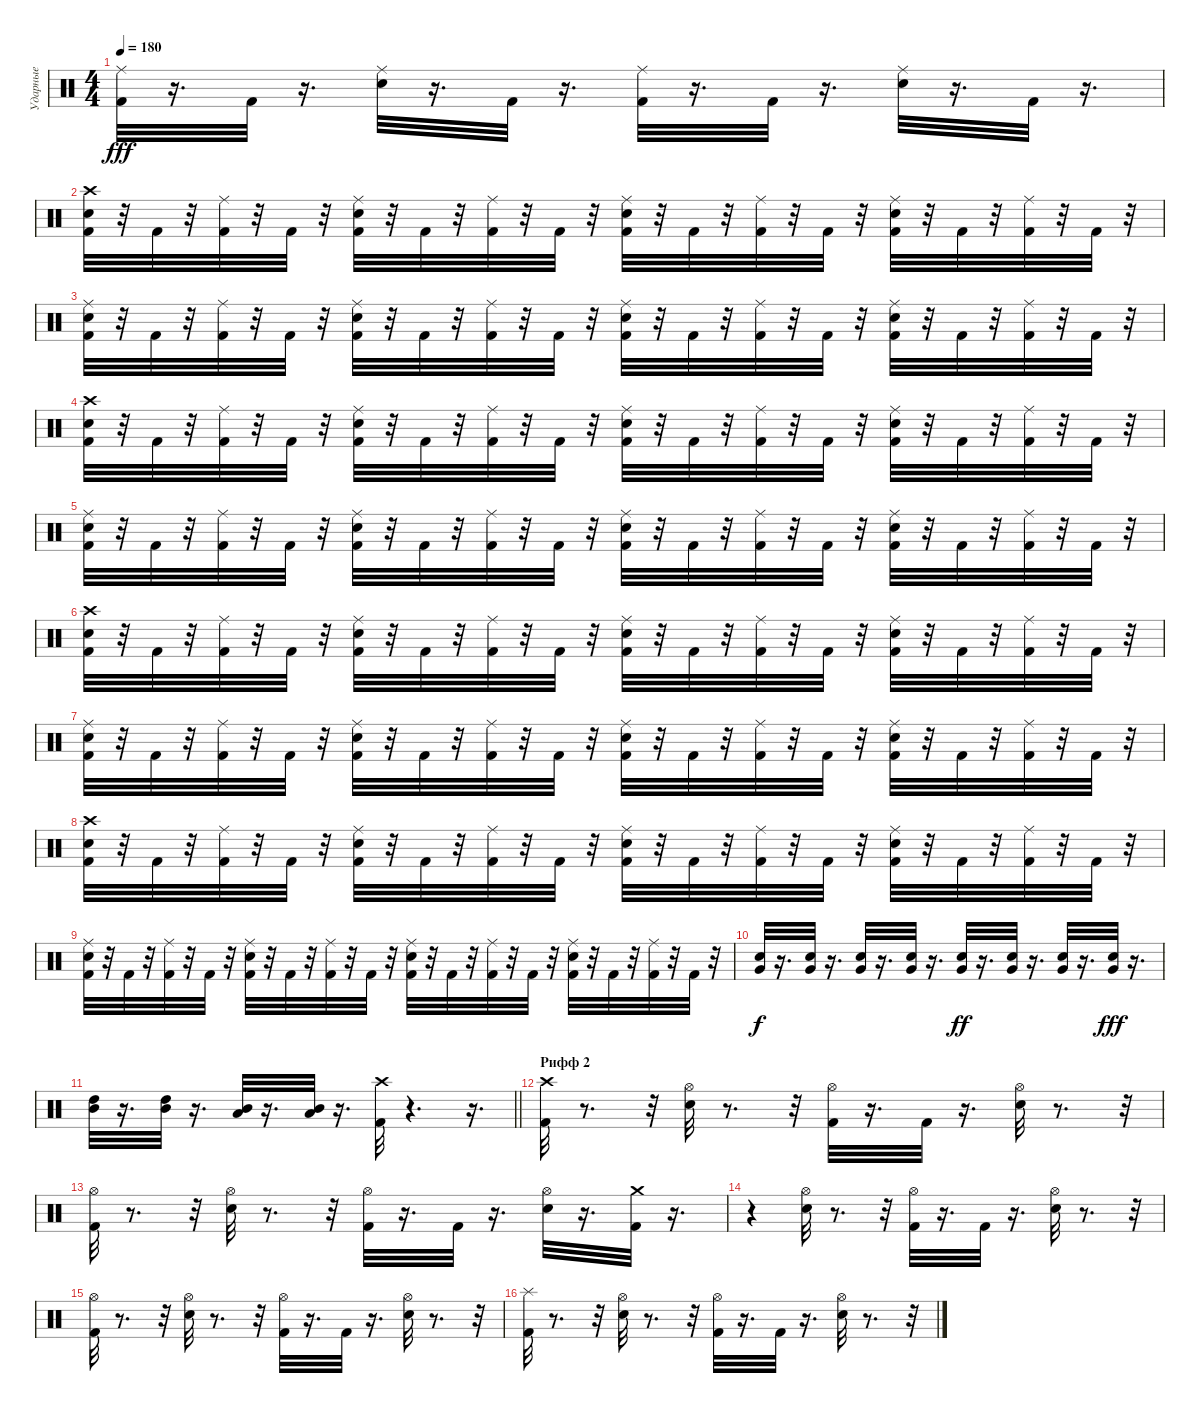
\track ("Ударные" "Ударные") {instrument percussion}
\staff {score}
\articulation defaults
\ts (4 4)
\tempo 180
\clef neutral
\ks c
("Ride (middle)" "Kick (hit) 2").32{dy fff} r.16{d} "Kick (hit) 2".32 r.16{d} ("Snare (hit) 2" "Ride (middle)").32 r.16{d} "Kick (hit) 2".32 r.16{d} ("Ride (middle)" "Kick (hit) 2").32 r.16{d} "Kick (hit) 2".32 r.16{d} ("Snare (hit) 2" "Ride (middle)").32 r.16{d} "Kick (hit) 2".32 r.16{d} |
("Kick (hit) 2" "Crash high (hit)" "Snare (hit) 2").32 r.32 "Kick (hit) 2".32 r.32 ("Ride (middle)" "Kick (hit) 2").32 r.32 "Kick (hit) 2".32 r.32 ("Snare (hit) 2" "Kick (hit) 2" "Ride (middle)").32 r.32 "Kick (hit) 2".32 r.32 ("Kick (hit) 2" "Ride (middle)").32 r.32 "Kick (hit) 2".32 r.32 ("Snare (hit) 2" "Kick (hit) 2" "Ride (middle)").32 r.32 "Kick (hit) 2".32 r.32 ("Kick (hit) 2" "Ride (middle)").32 r.32 "Kick (hit) 2".32 r.32 ("Ride (middle)" "Kick (hit) 2" "Snare (hit) 2").32 r.32 "Kick (hit) 2".32 r.32 ("Kick (hit) 2" "Ride (middle)").32 r.32 "Kick (hit) 2".32 r.32 |
("Snare (hit) 2" "Kick (hit) 2" "Ride (middle)").32 r.32 "Kick (hit) 2".32 r.32 ("Kick (hit) 2" "Ride (middle)").32 r.32 "Kick (hit) 2".32 r.32 ("Snare (hit) 2" "Kick (hit) 2" "Ride (middle)").32 r.32 "Kick (hit) 2".32 r.32 ("Kick (hit) 2" "Ride (middle)").32 r.32 "Kick (hit) 2".32 r.32 ("Snare (hit) 2" "Kick (hit) 2" "Ride (middle)").32 r.32 "Kick (hit) 2".32 r.32 ("Kick (hit) 2" "Ride (middle)").32 r.32 "Kick (hit) 2".32 r.32 ("Snare (hit) 2" "Kick (hit) 2" "Ride (middle)").32 r.32 "Kick (hit) 2".32 r.32 ("Kick (hit) 2" "Ride (middle)").32 r.32 "Kick (hit) 2".32 r.32 |
("Kick (hit) 2" "Crash high (hit)" "Snare (hit) 2").32 r.32 "Kick (hit) 2".32 r.32 ("Ride (middle)" "Kick (hit) 2").32 r.32 "Kick (hit) 2".32 r.32 ("Snare (hit) 2" "Kick (hit) 2" "Ride (middle)").32 r.32 "Kick (hit) 2".32 r.32 ("Kick (hit) 2" "Ride (middle)").32 r.32 "Kick (hit) 2".32 r.32 ("Snare (hit) 2" "Kick (hit) 2" "Ride (middle)").32 r.32 "Kick (hit) 2".32 r.32 ("Kick (hit) 2" "Ride (middle)").32 r.32 "Kick (hit) 2".32 r.32 ("Ride (middle)" "Kick (hit) 2" "Snare (hit) 2").32 r.32 "Kick (hit) 2".32 r.32 ("Kick (hit) 2" "Ride (middle)").32 r.32 "Kick (hit) 2".32 r.32 |
("Snare (hit) 2" "Kick (hit) 2" "Ride (middle)").32 r.32 "Kick (hit) 2".32 r.32 ("Kick (hit) 2" "Ride (middle)").32 r.32 "Kick (hit) 2".32 r.32 ("Snare (hit) 2" "Kick (hit) 2" "Ride (middle)").32 r.32 "Kick (hit) 2".32 r.32 ("Kick (hit) 2" "Ride (middle)").32 r.32 "Kick (hit) 2".32 r.32 ("Snare (hit) 2" "Kick (hit) 2" "Ride (middle)").32 r.32 "Kick (hit) 2".32 r.32 ("Kick (hit) 2" "Ride (middle)").32 r.32 "Kick (hit) 2".32 r.32 ("Snare (hit) 2" "Kick (hit) 2" "Ride (middle)").32 r.32 "Kick (hit) 2".32 r.32 ("Kick (hit) 2" "Ride (middle)").32 r.32 "Kick (hit) 2".32 r.32 |
("Kick (hit) 2" "Crash high (hit)" "Snare (hit) 2").32 r.32 "Kick (hit) 2".32 r.32 ("Ride (middle)" "Kick (hit) 2").32 r.32 "Kick (hit) 2".32 r.32 ("Snare (hit) 2" "Kick (hit) 2" "Ride (middle)").32 r.32 "Kick (hit) 2".32 r.32 ("Kick (hit) 2" "Ride (middle)").32 r.32 "Kick (hit) 2".32 r.32 ("Snare (hit) 2" "Kick (hit) 2" "Ride (middle)").32 r.32 "Kick (hit) 2".32 r.32 ("Kick (hit) 2" "Ride (middle)").32 r.32 "Kick (hit) 2".32 r.32 ("Ride (middle)" "Kick (hit) 2" "Snare (hit) 2").32 r.32 "Kick (hit) 2".32 r.32 ("Kick (hit) 2" "Ride (middle)").32 r.32 "Kick (hit) 2".32 r.32 |
("Snare (hit) 2" "Kick (hit) 2" "Ride (middle)").32 r.32 "Kick (hit) 2".32 r.32 ("Kick (hit) 2" "Ride (middle)").32 r.32 "Kick (hit) 2".32 r.32 ("Snare (hit) 2" "Kick (hit) 2" "Ride (middle)").32 r.32 "Kick (hit) 2".32 r.32 ("Kick (hit) 2" "Ride (middle)").32 r.32 "Kick (hit) 2".32 r.32 ("Snare (hit) 2" "Kick (hit) 2" "Ride (middle)").32 r.32 "Kick (hit) 2".32 r.32 ("Kick (hit) 2" "Ride (middle)").32 r.32 "Kick (hit) 2".32 r.32 ("Snare (hit) 2" "Kick (hit) 2" "Ride (middle)").32 r.32 "Kick (hit) 2".32 r.32 ("Kick (hit) 2" "Ride (middle)").32 r.32 "Kick (hit) 2".32 r.32 |
("Kick (hit) 2" "Crash high (hit)" "Snare (hit) 2").32 r.32 "Kick (hit) 2".32 r.32 ("Ride (middle)" "Kick (hit) 2").32 r.32 "Kick (hit) 2".32 r.32 ("Snare (hit) 2" "Kick (hit) 2" "Ride (middle)").32 r.32 "Kick (hit) 2".32 r.32 ("Kick (hit) 2" "Ride (middle)").32 r.32 "Kick (hit) 2".32 r.32 ("Snare (hit) 2" "Kick (hit) 2" "Ride (middle)").32 r.32 "Kick (hit) 2".32 r.32 ("Kick (hit) 2" "Ride (middle)").32 r.32 "Kick (hit) 2".32 r.32 ("Ride (middle)" "Kick (hit) 2" "Snare (hit) 2").32 r.32 "Kick (hit) 2".32 r.32 ("Kick (hit) 2" "Ride (middle)").32 r.32 "Kick (hit) 2".32 r.32 |
("Snare (hit) 2" "Kick (hit) 2" "Ride (middle)").32 r.32 "Kick (hit) 2".32 r.32 ("Kick (hit) 2" "Ride (middle)").32 r.32 "Kick (hit) 2".32 r.32 ("Snare (hit) 2" "Kick (hit) 2" "Ride (middle)").32 r.32 "Kick (hit) 2".32 r.32 ("Kick (hit) 2" "Ride (middle)").32 r.32 "Kick (hit) 2".32 r.32 ("Snare (hit) 2" "Kick (hit) 2" "Ride (middle)").32 r.32 "Kick (hit) 2".32 r.32 ("Kick (hit) 2" "Ride (middle)").32 r.32 "Kick (hit) 2".32 r.32 ("Snare (hit) 2" "Kick (hit) 2" "Ride (middle)").32 r.32 "Kick (hit) 2".32 r.32 ("Kick (hit) 2" "Ride (middle)").32 r.32 "Kick (hit) 2".32 r.32 |
("Very Low Tom (hit)" "Snare (hit) 2").32{dy f} r.16{d} ("Very Low Tom (hit)" "Snare (hit) 2").32 r.16{d} ("Very Low Tom (hit)" "Snare (hit) 2").32 r.16{d} ("Very Low Tom (hit)" "Snare (hit) 2").32 r.16{d} ("Very Low Tom (hit)" "Snare (hit) 2").32{dy ff} r.16{d} ("Very Low Tom (hit)" "Snare (hit) 2").32 r.16{d} ("Very Low Tom (hit)" "Snare (hit) 2").32 r.16{d} ("Very Low Tom (hit)" "Snare (hit) 2").32{dy fff} r.16{d} |
\barLineRight lightlight
("Mid Tom (hit)" "High Tom (hit)").32 r.16{d} ("Mid Tom (hit)" "High Tom (hit)").32 r.16{d} ("Low Tom (hit)" "Mid Tom (hit)").32 r.16{d} ("Low Tom (hit)" "Mid Tom (hit)").32 r.16{d} ("Crash high (hit)" "Kick (hit) 2").32 r.4{d} r.16{d} |
\section ("" "Рифф 2")
("Kick (hit) 2" "Crash high (hit)").32 r.8{d} r.32 ("Hi-Hat (open)" "Snare (hit) 2").32 r.8{d} r.32 ("Kick (hit) 2" "Hi-Hat (open)").32 r.16{d} "Kick (hit) 2".32 r.16{d} ("Snare (hit) 2" "Hi-Hat (open)").32 r.8{d} r.32 |
("Hi-Hat (open)" "Kick (hit) 2").32 r.8{d} r.32 ("Snare (hit) 2" "Hi-Hat (open)").32 r.8{d} r.32 ("Kick (hit) 2" "Hi-Hat (open)").32 r.16{d} "Kick (hit) 2".32 r.16{d} ("Hi-Hat (open)" "Snare (hit) 2").32 r.16{d} ("Kick (hit) 2" "Crash medium (hit)").32 r.16{d} |
r.4 ("Snare (hit) 2" "Hi-Hat (open)").32 r.8{d} r.32 ("Kick (hit) 2" "Hi-Hat (open)").32 r.16{d} "Kick (hit) 2".32 r.16{d} ("Hi-Hat (open)" "Snare (hit) 2").32 r.8{d} r.32 |
("Kick (hit) 2" "Hi-Hat (open)").32 r.8{d} r.32 ("Hi-Hat (open)" "Snare (hit) 2").32 r.8{d} r.32 ("Kick (hit) 2" "Hi-Hat (open)").32 r.16{d} "Kick (hit) 2".32 r.16{d} ("Hi-Hat (open)" "Snare (hit) 2").32 r.8{d} r.32 |
("Kick (hit) 2" "Splash (hit)").32 r.8{d} r.32 ("Hi-Hat (open)" "Snare (hit) 2").32 r.8{d} r.32 ("Hi-Hat (open)" "Kick (hit) 2").32 r.16{d} "Kick (hit) 2".32 r.16{d} ("Snare (hit) 2" "Hi-Hat (open)").32 r.8{d} r.32
